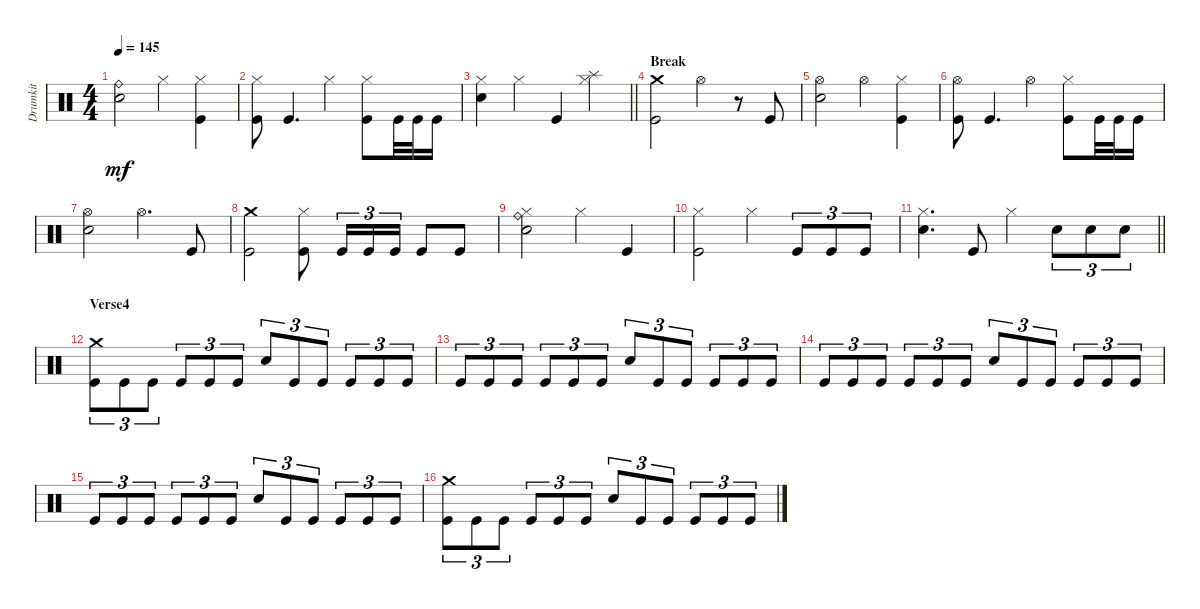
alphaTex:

\track ("Drumkit" "Drumkit") {instrument percussion}
\staff {score}
\articulation defaults
\ts (4 4)
\tempo 145
\clef neutral
\ks c
("Snare (hit) 2" "Ride (bell)").2{dy mf} "Hi-Hat (closed)".4 ("Hi-Hat (closed)" "Kick (hit)").4 |
("Kick (hit)" "Hi-Hat (closed)").8 "Kick (hit)".4{d} "Hi-Hat (closed)".4 ("Hi-Hat (closed)" "Kick (hit)").8 "Kick (hit)".32 "Kick (hit)".32 "Kick (hit)".16 |
\barLineRight lightlight
("Snare (hit) 2" "Hi-Hat (closed)").4 "Hi-Hat (closed)".4 "Kick (hit)".4 ("Hi-Hat (closed)" "Splash (hit)").4 |
\section ("" "Break")
("Kick (hit)" "Crash medium (hit)").2 "Hi-Hat (open)".4 r.8 "Kick (hit)".8 |
("Snare (hit) 2" "Hi-Hat (open)").2 "Hi-Hat (open)".4 ("Hi-Hat (closed)" "Kick (hit)").4 |
("Kick (hit)" "Hi-Hat (open)").8 "Kick (hit)".4{d} "Hi-Hat (open)".4 ("Hi-Hat (closed)" "Kick (hit)").8 "Kick (hit)".32 "Kick (hit)".32 "Kick (hit)".16 |
("Snare (hit) 2" "Hi-Hat (open)").2 "Hi-Hat (open)".4{d} "Kick (hit)".8 |
("Kick (hit)" "Crash medium (hit)").2 ("Kick (hit)" "Hi-Hat (closed)").8 "Kick (hit)".16{tu (3 2)} "Kick (hit)".16{tu (3 2)} "Kick (hit)".16{tu (3 2)} "Kick (hit)".8 "Kick (hit)".8 |
("Snare (hit) 2" "Hi-Hat (closed)" "Ride (bell)").2 "Hi-Hat (closed)".4 "Kick (hit)".4 |
("Kick (hit)" "Hi-Hat (closed)").2 "Hi-Hat (closed)".4 "Kick (hit)".8{tu (3 2)} "Kick (hit)".8{tu (3 2)} "Kick (hit)".8{tu (3 2)} |
\barLineRight lightlight
("Snare (hit) 2" "Hi-Hat (closed)").4{d} "Kick (hit)".8 "Hi-Hat (closed)".4 "Snare (hit) 2".8{tu (3 2)} "Snare (hit) 2".8{tu (3 2)} "Snare (hit) 2".8{tu (3 2)} |
\section ("" "Verse4")
("Kick (hit)" "Crash medium (hit)").8{tu (3 2)} "Kick (hit)".8{tu (3 2)} "Kick (hit)".8{tu (3 2)} "Kick (hit)".8{tu (3 2)} "Kick (hit)".8{tu (3 2)} "Kick (hit)".8{tu (3 2)} "Snare (hit) 2".8{tu (3 2)} "Kick (hit)".8{tu (3 2)} "Kick (hit)".8{tu (3 2)} "Kick (hit)".8{tu (3 2)} "Kick (hit)".8{tu (3 2)} "Kick (hit)".8{tu (3 2)} |
"Kick (hit)".8{tu (3 2)} "Kick (hit)".8{tu (3 2)} "Kick (hit)".8{tu (3 2)} "Kick (hit)".8{tu (3 2)} "Kick (hit)".8{tu (3 2)} "Kick (hit)".8{tu (3 2)} "Snare (hit) 2".8{tu (3 2)} "Kick (hit)".8{tu (3 2)} "Kick (hit)".8{tu (3 2)} "Kick (hit)".8{tu (3 2)} "Kick (hit)".8{tu (3 2)} "Kick (hit)".8{tu (3 2)} |
"Kick (hit)".8{tu (3 2)} "Kick (hit)".8{tu (3 2)} "Kick (hit)".8{tu (3 2)} "Kick (hit)".8{tu (3 2)} "Kick (hit)".8{tu (3 2)} "Kick (hit)".8{tu (3 2)} "Snare (hit) 2".8{tu (3 2)} "Kick (hit)".8{tu (3 2)} "Kick (hit)".8{tu (3 2)} "Kick (hit)".8{tu (3 2)} "Kick (hit)".8{tu (3 2)} "Kick (hit)".8{tu (3 2)} |
"Kick (hit)".8{tu (3 2)} "Kick (hit)".8{tu (3 2)} "Kick (hit)".8{tu (3 2)} "Kick (hit)".8{tu (3 2)} "Kick (hit)".8{tu (3 2)} "Kick (hit)".8{tu (3 2)} "Snare (hit) 2".8{tu (3 2)} "Kick (hit)".8{tu (3 2)} "Kick (hit)".8{tu (3 2)} "Kick (hit)".8{tu (3 2)} "Kick (hit)".8{tu (3 2)} "Kick (hit)".8{tu (3 2)} |
("Kick (hit)" "Crash medium (hit)").8{tu (3 2)} "Kick (hit)".8{tu (3 2)} "Kick (hit)".8{tu (3 2)} "Kick (hit)".8{tu (3 2)} "Kick (hit)".8{tu (3 2)} "Kick (hit)".8{tu (3 2)} "Snare (hit) 2".8{tu (3 2)} "Kick (hit)".8{tu (3 2)} "Kick (hit)".8{tu (3 2)} "Kick (hit)".8{tu (3 2)} "Kick (hit)".8{tu (3 2)} "Kick (hit)".8{tu (3 2)}
